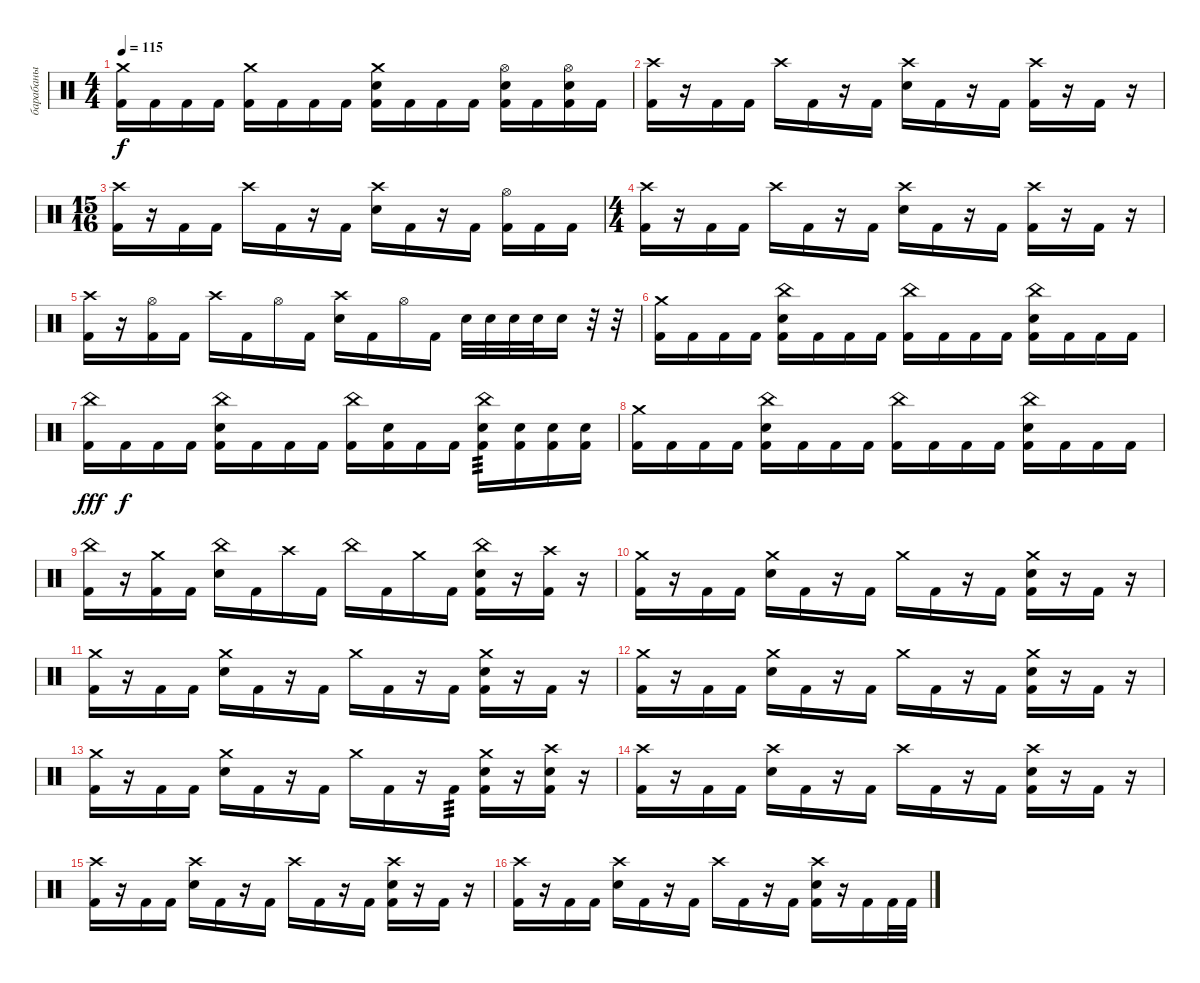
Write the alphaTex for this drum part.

\track ("барабаны" "барабаны") {instrument percussion}
\staff {score}
\articulation defaults
\ts (4 4)
\tempo 115
\clef neutral
\ks c
("Crash medium (hit)" "Kick (hit) 2").16{dy f} "Kick (hit) 2".16 "Kick (hit) 2".16 "Kick (hit) 2".16 ("Crash medium (hit)" "Kick (hit) 2").16 "Kick (hit) 2".16 "Kick (hit) 2".16 "Kick (hit) 2".16 ("Crash medium (hit)" "Snare (hit) 2" "Kick (hit) 2").16 "Kick (hit) 2".16 "Kick (hit) 2".16 "Kick (hit) 2".16 ("Hi-Hat (open)" "Snare (hit) 2" "Kick (hit) 2").16 "Kick (hit) 2".16 ("Hi-Hat (open)" "Snare (hit) 2" "Kick (hit) 2").16 "Kick (hit) 2".16 |
("Crash high (hit)" "Kick (hit) 2").16 r.16 "Kick (hit) 2".16 "Kick (hit) 2".16 "Crash high (hit)".16 "Kick (hit) 2".16 r.16 "Kick (hit) 2".16 ("Crash high (hit)" "Snare (hit) 2").16 "Kick (hit) 2".16 r.16 "Kick (hit) 2".16 ("Crash high (hit)" "Kick (hit) 2").16 r.16 "Kick (hit) 2".16 r.16 |
\ts (15 16)
("Crash high (hit)" "Kick (hit) 2").16 r.16 "Kick (hit) 2".16 "Kick (hit) 2".16 "Crash high (hit)".16 "Kick (hit) 2".16 r.16 "Kick (hit) 2".16 ("Crash high (hit)" "Snare (hit) 2").16 "Kick (hit) 2".16 r.16 "Kick (hit) 2".16 ("Hi-Hat (open)" "Kick (hit) 2").16 "Kick (hit) 2".16 "Kick (hit) 2".16 |
\ts (4 4)
("Crash high (hit)" "Kick (hit) 2").16 r.16 "Kick (hit) 2".16 "Kick (hit) 2".16 "Crash high (hit)".16 "Kick (hit) 2".16 r.16 "Kick (hit) 2".16 ("Crash high (hit)" "Snare (hit) 2").16 "Kick (hit) 2".16 r.16 "Kick (hit) 2".16 ("Crash high (hit)" "Kick (hit) 2").16 r.16 "Kick (hit) 2".16 r.16 |
("Crash high (hit)" "Kick (hit) 2").16 r.16 ("Hi-Hat (open)" "Kick (hit) 2").16 "Kick (hit) 2".16 "Crash high (hit)".16 "Kick (hit) 2".16 "Hi-Hat (open)".16 "Kick (hit) 2".16 ("Crash high (hit)" "Snare (hit) 2").16 "Kick (hit) 2".16 "Hi-Hat (open)".16 "Kick (hit) 2".16 "Snare (hit) 2".32 "Snare (hit) 2".32 "Snare (hit) 2".32 "Snare (hit) 2".32 "Snare (hit) 2".16 r.32 r.32 |
("Crash medium (hit)" "Kick (hit) 2").16 "Kick (hit) 2".16 "Kick (hit) 2".16 "Kick (hit) 2".16 ("China (hit)" "Snare (hit) 2" "Kick (hit) 2").16 "Kick (hit) 2".16 "Kick (hit) 2".16 "Kick (hit) 2".16 ("China (hit)" "Kick (hit) 2").16 "Kick (hit) 2".16 "Kick (hit) 2".16 "Kick (hit) 2".16 ("China (hit)" "Snare (hit) 2" "Kick (hit) 2").16 "Kick (hit) 2".16 "Kick (hit) 2".16 "Kick (hit) 2".16 |
("China (hit)" "Kick (hit) 2").16{dy fff} "Kick (hit) 2".16{dy f} "Kick (hit) 2".16 "Kick (hit) 2".16 ("China (hit)" "Snare (hit) 2" "Kick (hit) 2").16 "Kick (hit) 2".16 "Kick (hit) 2".16 "Kick (hit) 2".16 ("China (hit)" "Kick (hit) 2").16 ("Snare (hit) 2" "Kick (hit) 2").16 "Kick (hit) 2".16 "Kick (hit) 2".16 ("China (hit)" "Snare (hit) 2" "Kick (hit) 2").16{tp 3} ("Snare (hit) 2" "Kick (hit) 2").16 ("Snare (hit) 2" "Kick (hit) 2").16 ("Snare (hit) 2" "Kick (hit) 2").16 |
("Crash medium (hit)" "Kick (hit) 2").16 "Kick (hit) 2".16 "Kick (hit) 2".16 "Kick (hit) 2".16 ("China (hit)" "Snare (hit) 2" "Kick (hit) 2").16 "Kick (hit) 2".16 "Kick (hit) 2".16 "Kick (hit) 2".16 ("China (hit)" "Kick (hit) 2").16 "Kick (hit) 2".16 "Kick (hit) 2".16 "Kick (hit) 2".16 ("China (hit)" "Snare (hit) 2" "Kick (hit) 2").16 "Kick (hit) 2".16 "Kick (hit) 2".16 "Kick (hit) 2".16 |
("China (hit)" "Kick (hit) 2").16 r.16 ("Crash medium (hit)" "Kick (hit) 2").16 "Kick (hit) 2".16 ("China (hit)" "Snare (hit) 2").16 "Kick (hit) 2".16 "Crash high (hit)".16 "Kick (hit) 2".16 "China (hit)".16 "Kick (hit) 2".16 "Crash medium (hit)".16 "Kick (hit) 2".16 ("China (hit)" "Snare (hit) 2" "Kick (hit) 2").16 r.16 ("Crash high (hit)" "Kick (hit) 2").16 r.16 |
("Crash medium (hit)" "Kick (hit) 2").16 r.16 "Kick (hit) 2".16 "Kick (hit) 2".16 ("Crash medium (hit)" "Snare (hit) 2").16 "Kick (hit) 2".16 r.16 "Kick (hit) 2".16 "Crash medium (hit)".16 "Kick (hit) 2".16 r.16 "Kick (hit) 2".16 ("Crash medium (hit)" "Snare (hit) 2" "Kick (hit) 2").16 r.16 "Kick (hit) 2".16 r.16 |
("Crash medium (hit)" "Kick (hit) 2").16 r.16 "Kick (hit) 2".16 "Kick (hit) 2".16 ("Crash medium (hit)" "Snare (hit) 2").16 "Kick (hit) 2".16 r.16 "Kick (hit) 2".16 "Crash medium (hit)".16 "Kick (hit) 2".16 r.16 "Kick (hit) 2".16 ("Crash medium (hit)" "Snare (hit) 2" "Kick (hit) 2").16 r.16 "Kick (hit) 2".16 r.16 |
("Crash medium (hit)" "Kick (hit) 2").16 r.16 "Kick (hit) 2".16 "Kick (hit) 2".16 ("Crash medium (hit)" "Snare (hit) 2").16 "Kick (hit) 2".16 r.16 "Kick (hit) 2".16 "Crash medium (hit)".16 "Kick (hit) 2".16 r.16 "Kick (hit) 2".16 ("Crash medium (hit)" "Snare (hit) 2" "Kick (hit) 2").16 r.16 "Kick (hit) 2".16 r.16 |
("Crash medium (hit)" "Kick (hit) 2").16 r.16 "Kick (hit) 2".16 "Kick (hit) 2".16 ("Crash medium (hit)" "Snare (hit) 2").16 "Kick (hit) 2".16 r.16 "Kick (hit) 2".16 "Crash medium (hit)".16 "Kick (hit) 2".16 r.16 "Kick (hit) 2".16{tp 3} ("Crash medium (hit)" "Snare (hit) 2" "Kick (hit) 2").16 r.16 ("Crash high (hit)" "Snare (hit) 2" "Kick (hit) 2").16 r.16 |
("Crash high (hit)" "Kick (hit) 2").16 r.16 "Kick (hit) 2".16 "Kick (hit) 2".16 ("Crash high (hit)" "Snare (hit) 2").16 "Kick (hit) 2".16 r.16 "Kick (hit) 2".16 "Crash high (hit)".16 "Kick (hit) 2".16 r.16 "Kick (hit) 2".16 ("Crash high (hit)" "Snare (hit) 2" "Kick (hit) 2").16 r.16 "Kick (hit) 2".16 r.16 |
("Crash high (hit)" "Kick (hit) 2").16 r.16 "Kick (hit) 2".16 "Kick (hit) 2".16 ("Crash high (hit)" "Snare (hit) 2").16 "Kick (hit) 2".16 r.16 "Kick (hit) 2".16 "Crash high (hit)".16 "Kick (hit) 2".16 r.16 "Kick (hit) 2".16 ("Crash high (hit)" "Snare (hit) 2" "Kick (hit) 2").16 r.16 "Kick (hit) 2".16 r.16 |
("Crash high (hit)" "Kick (hit) 2").16 r.16 "Kick (hit) 2".16 "Kick (hit) 2".16 ("Crash high (hit)" "Snare (hit) 2").16 "Kick (hit) 2".16 r.16 "Kick (hit) 2".16 "Crash high (hit)".16 "Kick (hit) 2".16 r.16 "Kick (hit) 2".16 ("Crash high (hit)" "Snare (hit) 2" "Kick (hit) 2").16 r.16 "Kick (hit) 2".16 "Kick (hit) 2".32 "Kick (hit) 2".32
